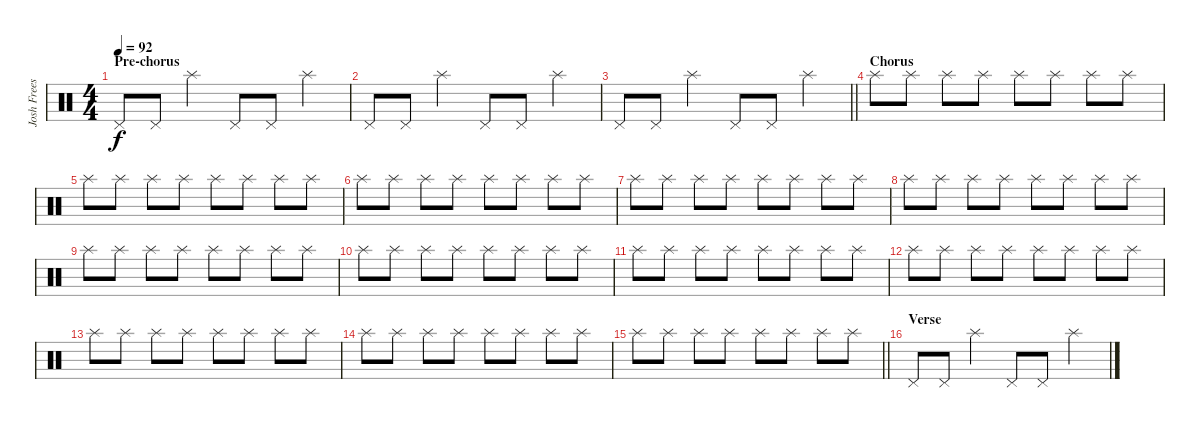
\track ("Josh Freese (Studio Drummer)" "Josh Frees") {instrument percussion}
\staff {score}
\articulation defaults
\ts (4 4)
\section ("" "Pre-chorus")
\tempo 92
\clef neutral
\ks c "Pedal Hi-Hat (hit)".8{dy f} "Pedal Hi-Hat (hit)".8 "Splash (hit)".4 "Pedal Hi-Hat (hit)".8 "Pedal Hi-Hat (hit)".8 "Splash (hit)".4
|
"Pedal Hi-Hat (hit)".8 "Pedal Hi-Hat (hit)".8 "Splash (hit)".4 "Pedal Hi-Hat (hit)".8 "Pedal Hi-Hat (hit)".8 "Splash (hit)".4 |
\barLineRight lightlight "Pedal Hi-Hat (hit)".8 "Pedal Hi-Hat (hit)".8 "Splash (hit)".4 "Pedal Hi-Hat (hit)".8 "Pedal Hi-Hat (hit)".8 "Splash (hit)".4
|
\section ("" "Chorus")
"Splash (hit)".8 "Splash (hit)".8 "Splash (hit)".8 "Splash (hit)".8 "Splash (hit)".8 "Splash (hit)".8 "Splash (hit)".8 "Splash (hit)".8 |
"Splash (hit)".8 "Splash (hit)".8 "Splash (hit)".8 "Splash (hit)".8 "Splash (hit)".8 "Splash (hit)".8 "Splash (hit)".8 "Splash (hit)".8 |
"Splash (hit)".8 "Splash (hit)".8 "Splash (hit)".8 "Splash (hit)".8 "Splash (hit)".8 "Splash (hit)".8 "Splash (hit)".8 "Splash (hit)".8 |
"Splash (hit)".8 "Splash (hit)".8 "Splash (hit)".8 "Splash (hit)".8 "Splash (hit)".8 "Splash (hit)".8 "Splash (hit)".8 "Splash (hit)".8 |
"Splash (hit)".8 "Splash (hit)".8 "Splash (hit)".8 "Splash (hit)".8 "Splash (hit)".8 "Splash (hit)".8 "Splash (hit)".8 "Splash (hit)".8 |
"Splash (hit)".8 "Splash (hit)".8 "Splash (hit)".8 "Splash (hit)".8 "Splash (hit)".8 "Splash (hit)".8 "Splash (hit)".8 "Splash (hit)".8 |
"Splash (hit)".8 "Splash (hit)".8 "Splash (hit)".8 "Splash (hit)".8 "Splash (hit)".8 "Splash (hit)".8 "Splash (hit)".8 "Splash (hit)".8 |
"Splash (hit)".8 "Splash (hit)".8 "Splash (hit)".8 "Splash (hit)".8 "Splash (hit)".8 "Splash (hit)".8 "Splash (hit)".8 "Splash (hit)".8 |
"Splash (hit)".8 "Splash (hit)".8 "Splash (hit)".8 "Splash (hit)".8 "Splash (hit)".8 "Splash (hit)".8 "Splash (hit)".8 "Splash (hit)".8 |
"Splash (hit)".8 "Splash (hit)".8 "Splash (hit)".8 "Splash (hit)".8 "Splash (hit)".8 "Splash (hit)".8 "Splash (hit)".8 "Splash (hit)".8 |
"Splash (hit)".8 "Splash (hit)".8 "Splash (hit)".8 "Splash (hit)".8 "Splash (hit)".8 "Splash (hit)".8 "Splash (hit)".8 "Splash (hit)".8 |
\barLineRight lightlight "Splash (hit)".8 "Splash (hit)".8 "Splash (hit)".8 "Splash (hit)".8 "Splash (hit)".8 "Splash (hit)".8 "Splash (hit)".8 "Splash (hit)".8
|
\section ("" "Verse")
"Pedal Hi-Hat (hit)".8 "Pedal Hi-Hat (hit)".8 "Splash (hit)".4 "Pedal Hi-Hat (hit)".8 "Pedal Hi-Hat (hit)".8 "Splash (hit)".4
